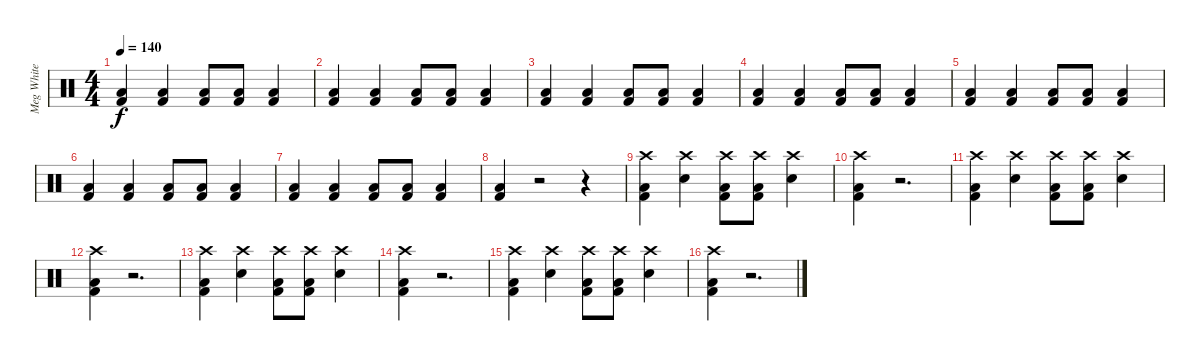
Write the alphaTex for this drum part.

\track ("Meg White" "Meg White") {instrument percussion}
\staff {score}
\articulation defaults
\ts (4 4)
\tempo 140
\clef neutral
\ks c
("Kick (hit) 2" "Low Floor Tom (hit)").4{dy f} ("Kick (hit) 2" "Low Floor Tom (hit)").4 ("Kick (hit) 2" "Low Floor Tom (hit)").8 ("Kick (hit) 2" "Low Floor Tom (hit)").8 ("Kick (hit) 2" "Low Floor Tom (hit)").4 |
("Kick (hit) 2" "Low Floor Tom (hit)").4 ("Kick (hit) 2" "Low Floor Tom (hit)").4 ("Kick (hit) 2" "Low Floor Tom (hit)").8 ("Kick (hit) 2" "Low Floor Tom (hit)").8 ("Kick (hit) 2" "Low Floor Tom (hit)").4 |
("Kick (hit) 2" "Low Floor Tom (hit)").4 ("Kick (hit) 2" "Low Floor Tom (hit)").4 ("Kick (hit) 2" "Low Floor Tom (hit)").8 ("Kick (hit) 2" "Low Floor Tom (hit)").8 ("Kick (hit) 2" "Low Floor Tom (hit)").4 |
("Kick (hit) 2" "Low Floor Tom (hit)").4 ("Kick (hit) 2" "Low Floor Tom (hit)").4 ("Kick (hit) 2" "Low Floor Tom (hit)").8 ("Kick (hit) 2" "Low Floor Tom (hit)").8 ("Kick (hit) 2" "Low Floor Tom (hit)").4 |
("Kick (hit) 2" "Low Floor Tom (hit)").4 ("Kick (hit) 2" "Low Floor Tom (hit)").4 ("Kick (hit) 2" "Low Floor Tom (hit)").8 ("Kick (hit) 2" "Low Floor Tom (hit)").8 ("Kick (hit) 2" "Low Floor Tom (hit)").4 |
("Kick (hit) 2" "Low Floor Tom (hit)").4 ("Kick (hit) 2" "Low Floor Tom (hit)").4 ("Kick (hit) 2" "Low Floor Tom (hit)").8 ("Kick (hit) 2" "Low Floor Tom (hit)").8 ("Kick (hit) 2" "Low Floor Tom (hit)").4 |
("Kick (hit) 2" "Low Floor Tom (hit)").4 ("Kick (hit) 2" "Low Floor Tom (hit)").4 ("Kick (hit) 2" "Low Floor Tom (hit)").8 ("Kick (hit) 2" "Low Floor Tom (hit)").8 ("Kick (hit) 2" "Low Floor Tom (hit)").4 |
("Kick (hit) 2" "Low Floor Tom (hit)").4 r.2 r.4 |
("Kick (hit) 2" "Low Floor Tom (hit)" "Crash high (hit)").4 ("Electric Snare (hit)" "Crash high (hit)").4 ("Kick (hit) 2" "Low Floor Tom (hit)" "Crash high (hit)").8 ("Kick (hit) 2" "Low Floor Tom (hit)" "Crash high (hit)").8 ("Electric Snare (hit)" "Crash high (hit)").4 |
("Kick (hit) 2" "Low Floor Tom (hit)" "Crash high (hit)").4 r.2{d} |
("Kick (hit) 2" "Low Floor Tom (hit)" "Crash high (hit)").4 ("Electric Snare (hit)" "Crash high (hit)").4 ("Kick (hit) 2" "Low Floor Tom (hit)" "Crash high (hit)").8 ("Kick (hit) 2" "Low Floor Tom (hit)" "Crash high (hit)").8 ("Electric Snare (hit)" "Crash high (hit)").4 |
("Kick (hit) 2" "Low Floor Tom (hit)" "Crash high (hit)").4 r.2{d} |
("Kick (hit) 2" "Low Floor Tom (hit)" "Crash high (hit)").4 ("Electric Snare (hit)" "Crash high (hit)").4 ("Kick (hit) 2" "Low Floor Tom (hit)" "Crash high (hit)").8 ("Kick (hit) 2" "Low Floor Tom (hit)" "Crash high (hit)").8 ("Electric Snare (hit)" "Crash high (hit)").4 |
("Kick (hit) 2" "Low Floor Tom (hit)" "Crash high (hit)").4 r.2{d} |
("Kick (hit) 2" "Low Floor Tom (hit)" "Crash high (hit)").4 ("Electric Snare (hit)" "Crash high (hit)").4 ("Kick (hit) 2" "Low Floor Tom (hit)" "Crash high (hit)").8 ("Kick (hit) 2" "Low Floor Tom (hit)" "Crash high (hit)").8 ("Electric Snare (hit)" "Crash high (hit)").4 |
("Kick (hit) 2" "Low Floor Tom (hit)" "Crash high (hit)").4 r.2{d}
